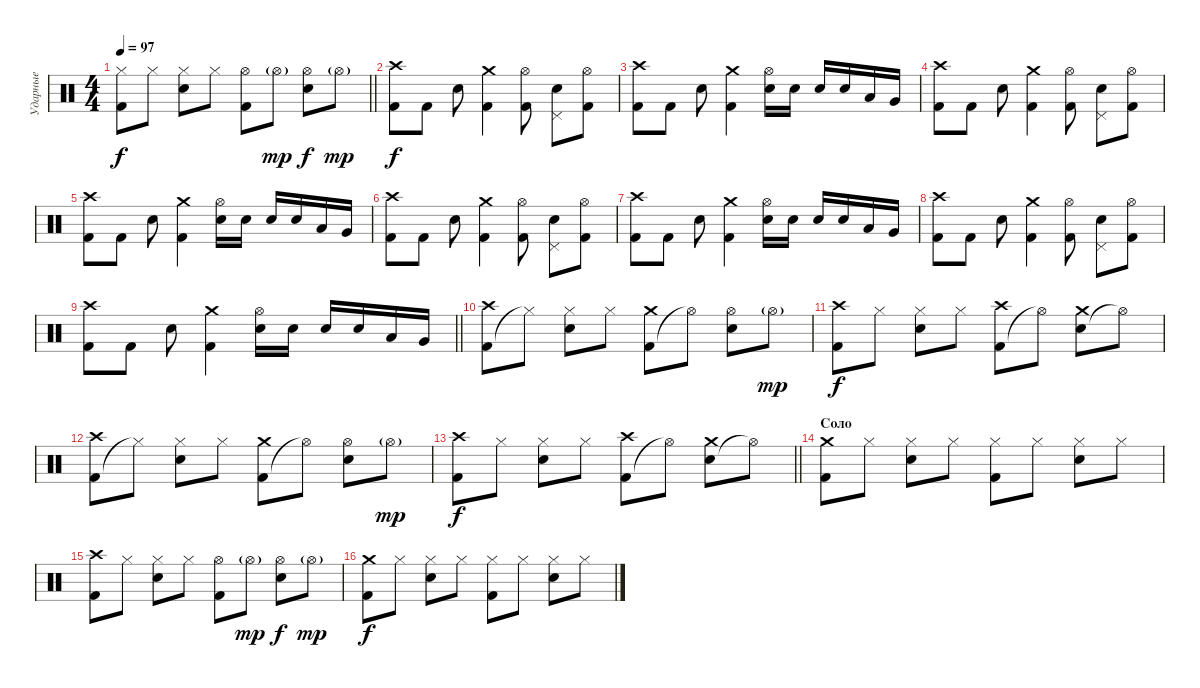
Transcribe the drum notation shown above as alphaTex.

\track ("Ударные" "Ударные") {instrument percussion}
\staff {score}
\articulation defaults
\ts (4 4)
\tempo 97
\clef neutral
\barLineRight lightlight
\ks c
("Kick (hit) 2" "Hi-Hat (closed)").8{dy f} "Hi-Hat (closed)".8 ("Snare (hit) 2" "Hi-Hat (closed)").8 "Hi-Hat (closed)".8 ("Kick (hit) 2" "Hi-Hat (open)").8 "Hi-Hat (open)"{g}.8{dy mp} ("Snare (hit) 2" "Hi-Hat (open)").8{dy f} "Hi-Hat (open)"{g}.8{dy mp} |
\section ("" "")
("Crash high (hit)" "Kick (hit) 2").8{dy f} "Kick (hit) 2".8 "Snare (hit) 2".8 ("Crash medium (hit)" "Kick (hit) 2").4 ("Hi-Hat (open)" "Kick (hit) 2").8 ("Pedal Hi-Hat (hit)" "Snare (hit) 2").8 ("Hi-Hat (open)" "Kick (hit) 2").8 |
("Crash high (hit)" "Kick (hit) 2").8 "Kick (hit) 2".8 "Snare (hit) 2".8 ("Crash medium (hit)" "Kick (hit) 2").4 ("Hi-Hat (open)" "Snare (hit) 2").16 "Snare (hit) 2".16 "Snare (hit) 2".16 "Snare (hit) 2".16 "Low Tom (hit)".16 "Very Low Tom (hit)".16 |
("Crash high (hit)" "Kick (hit) 2").8 "Kick (hit) 2".8 "Snare (hit) 2".8 ("Crash medium (hit)" "Kick (hit) 2").4 ("Hi-Hat (open)" "Kick (hit) 2").8 ("Pedal Hi-Hat (hit)" "Snare (hit) 2").8 ("Hi-Hat (open)" "Kick (hit) 2").8 |
("Crash high (hit)" "Kick (hit) 2").8 "Kick (hit) 2".8 "Snare (hit) 2".8 ("Crash medium (hit)" "Kick (hit) 2").4 ("Hi-Hat (open)" "Snare (hit) 2").16 "Snare (hit) 2".16 "Snare (hit) 2".16 "Snare (hit) 2".16 "Low Tom (hit)".16 "Very Low Tom (hit)".16 |
("Crash high (hit)" "Kick (hit) 2").8 "Kick (hit) 2".8 "Snare (hit) 2".8 ("Crash medium (hit)" "Kick (hit) 2").4 ("Hi-Hat (open)" "Kick (hit) 2").8 ("Pedal Hi-Hat (hit)" "Snare (hit) 2").8 ("Hi-Hat (open)" "Kick (hit) 2").8 |
("Crash high (hit)" "Kick (hit) 2").8 "Kick (hit) 2".8 "Snare (hit) 2".8 ("Crash medium (hit)" "Kick (hit) 2").4 ("Hi-Hat (open)" "Snare (hit) 2").16 "Snare (hit) 2".16 "Snare (hit) 2".16 "Snare (hit) 2".16 "Low Tom (hit)".16 "Very Low Tom (hit)".16 |
("Crash high (hit)" "Kick (hit) 2").8 "Kick (hit) 2".8 "Snare (hit) 2".8 ("Crash medium (hit)" "Kick (hit) 2").4 ("Hi-Hat (open)" "Kick (hit) 2").8 ("Pedal Hi-Hat (hit)" "Snare (hit) 2").8 ("Hi-Hat (open)" "Kick (hit) 2").8 |
\barLineRight lightlight
("Crash high (hit)" "Kick (hit) 2").8 "Kick (hit) 2".8 "Snare (hit) 2".8 ("Crash medium (hit)" "Kick (hit) 2").4 ("Hi-Hat (open)" "Snare (hit) 2").16 "Snare (hit) 2".16 "Snare (hit) 2".16 "Snare (hit) 2".16 "Low Tom (hit)".16 "Very Low Tom (hit)".16 |
\section ("" "")
("Kick (hit) 2" "Crash high (hit)").8 "Hi-Hat (closed)"{t}.8 ("Snare (hit) 2" "Hi-Hat (closed)").8 "Hi-Hat (closed)".8 ("Kick (hit) 2" "Crash medium (hit)").8 "Hi-Hat (open)"{t}.8 ("Snare (hit) 2" "Hi-Hat (open)").8 "Hi-Hat (open)"{g}.8{dy mp} |
("Kick (hit) 2" "Crash high (hit)").8{dy f} "Hi-Hat (closed)".8 ("Snare (hit) 2" "Hi-Hat (closed)").8 "Hi-Hat (closed)".8 ("Kick (hit) 2" "Crash high (hit)").8 "Hi-Hat (open)"{t}.8 ("Snare (hit) 2" "Crash medium (hit)").8 "Hi-Hat (open)"{t}.8 |
("Kick (hit) 2" "Crash high (hit)").8 "Hi-Hat (closed)"{t}.8 ("Snare (hit) 2" "Hi-Hat (closed)").8 "Hi-Hat (closed)".8 ("Kick (hit) 2" "Crash medium (hit)").8 "Hi-Hat (open)"{t}.8 ("Snare (hit) 2" "Hi-Hat (open)").8 "Hi-Hat (open)"{g}.8{dy mp} |
\barLineRight lightlight
("Kick (hit) 2" "Crash high (hit)").8{dy f} "Hi-Hat (closed)".8 ("Snare (hit) 2" "Hi-Hat (closed)").8 "Hi-Hat (closed)".8 ("Kick (hit) 2" "Crash high (hit)").8 "Hi-Hat (open)"{t}.8 ("Snare (hit) 2" "Crash medium (hit)").8 "Hi-Hat (open)"{t}.8 |
\section ("" "Соло")
("Crash medium (hit)" "Kick (hit) 2").8 "Hi-Hat (closed)".8 ("Snare (hit) 2" "Hi-Hat (closed)").8 "Hi-Hat (closed)".8 ("Kick (hit) 2" "Hi-Hat (closed)").8 "Hi-Hat (closed)".8 ("Snare (hit) 2" "Hi-Hat (closed)").8 "Hi-Hat (closed)".8 |
("Kick (hit) 2" "Crash high (hit)").8 "Hi-Hat (closed)".8 ("Snare (hit) 2" "Hi-Hat (closed)").8 "Hi-Hat (closed)".8 ("Kick (hit) 2" "Hi-Hat (open)").8 "Hi-Hat (open)"{g}.8{dy mp} ("Snare (hit) 2" "Hi-Hat (open)").8{dy f} "Hi-Hat (open)"{g}.8{dy mp} |
("Crash medium (hit)" "Kick (hit) 2").8{dy f} "Hi-Hat (closed)".8 ("Snare (hit) 2" "Hi-Hat (closed)").8 "Hi-Hat (closed)".8 ("Kick (hit) 2" "Hi-Hat (closed)").8 "Hi-Hat (closed)".8 ("Snare (hit) 2" "Hi-Hat (closed)").8 "Hi-Hat (closed)".8
